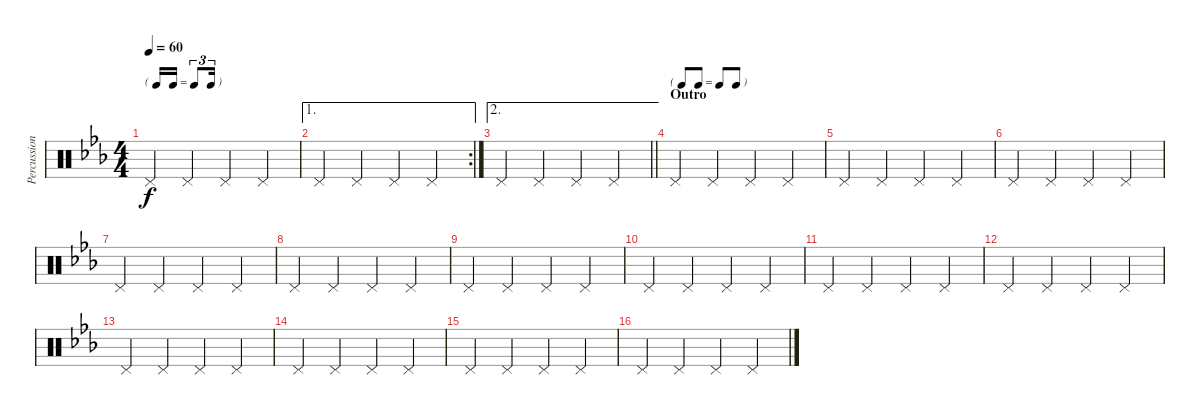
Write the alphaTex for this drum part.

\track ("Percussioni" "Percussion") {instrument percussion}
\staff {score}
\articulation defaults
\ts (4 4)
\tf triplet16th
\tempo 60
\clef neutral
\ks cminor "Pedal Hi-Hat (hit)".4{dy f} "Pedal Hi-Hat (hit)".4 "Pedal Hi-Hat (hit)".4 "Pedal Hi-Hat (hit)".4
|
\ae 1
\rc 2 "Pedal Hi-Hat (hit)".4 "Pedal Hi-Hat (hit)".4 "Pedal Hi-Hat (hit)".4 "Pedal Hi-Hat (hit)".4
|
\ae 2
\barLineRight lightlight "Pedal Hi-Hat (hit)".4 "Pedal Hi-Hat (hit)".4 "Pedal Hi-Hat (hit)".4 "Pedal Hi-Hat (hit)".4
|
\tf none
\section ("" "Outro")
\ks eb "Pedal Hi-Hat (hit)".4 "Pedal Hi-Hat (hit)".4 "Pedal Hi-Hat (hit)".4 "Pedal Hi-Hat (hit)".4
|
\ks cminor "Pedal Hi-Hat (hit)".4 "Pedal Hi-Hat (hit)".4 "Pedal Hi-Hat (hit)".4 "Pedal Hi-Hat (hit)".4
|
"Pedal Hi-Hat (hit)".4 "Pedal Hi-Hat (hit)".4 "Pedal Hi-Hat (hit)".4 "Pedal Hi-Hat (hit)".4 |
"Pedal Hi-Hat (hit)".4 "Pedal Hi-Hat (hit)".4 "Pedal Hi-Hat (hit)".4 "Pedal Hi-Hat (hit)".4 |
"Pedal Hi-Hat (hit)".4 "Pedal Hi-Hat (hit)".4 "Pedal Hi-Hat (hit)".4 "Pedal Hi-Hat (hit)".4 |
"Pedal Hi-Hat (hit)".4 "Pedal Hi-Hat (hit)".4 "Pedal Hi-Hat (hit)".4 "Pedal Hi-Hat (hit)".4 |
"Pedal Hi-Hat (hit)".4 "Pedal Hi-Hat (hit)".4 "Pedal Hi-Hat (hit)".4 "Pedal Hi-Hat (hit)".4 |
"Pedal Hi-Hat (hit)".4 "Pedal Hi-Hat (hit)".4 "Pedal Hi-Hat (hit)".4 "Pedal Hi-Hat (hit)".4 |
"Pedal Hi-Hat (hit)".4{volume 0} "Pedal Hi-Hat (hit)".4 "Pedal Hi-Hat (hit)".4 "Pedal Hi-Hat (hit)".4 |
"Pedal Hi-Hat (hit)".4 "Pedal Hi-Hat (hit)".4 "Pedal Hi-Hat (hit)".4 "Pedal Hi-Hat (hit)".4 |
"Pedal Hi-Hat (hit)".4 "Pedal Hi-Hat (hit)".4 "Pedal Hi-Hat (hit)".4 "Pedal Hi-Hat (hit)".4 |
"Pedal Hi-Hat (hit)".4 "Pedal Hi-Hat (hit)".4 "Pedal Hi-Hat (hit)".4 "Pedal Hi-Hat (hit)".4 |
"Pedal Hi-Hat (hit)".4 "Pedal Hi-Hat (hit)".4 "Pedal Hi-Hat (hit)".4 "Pedal Hi-Hat (hit)".4
